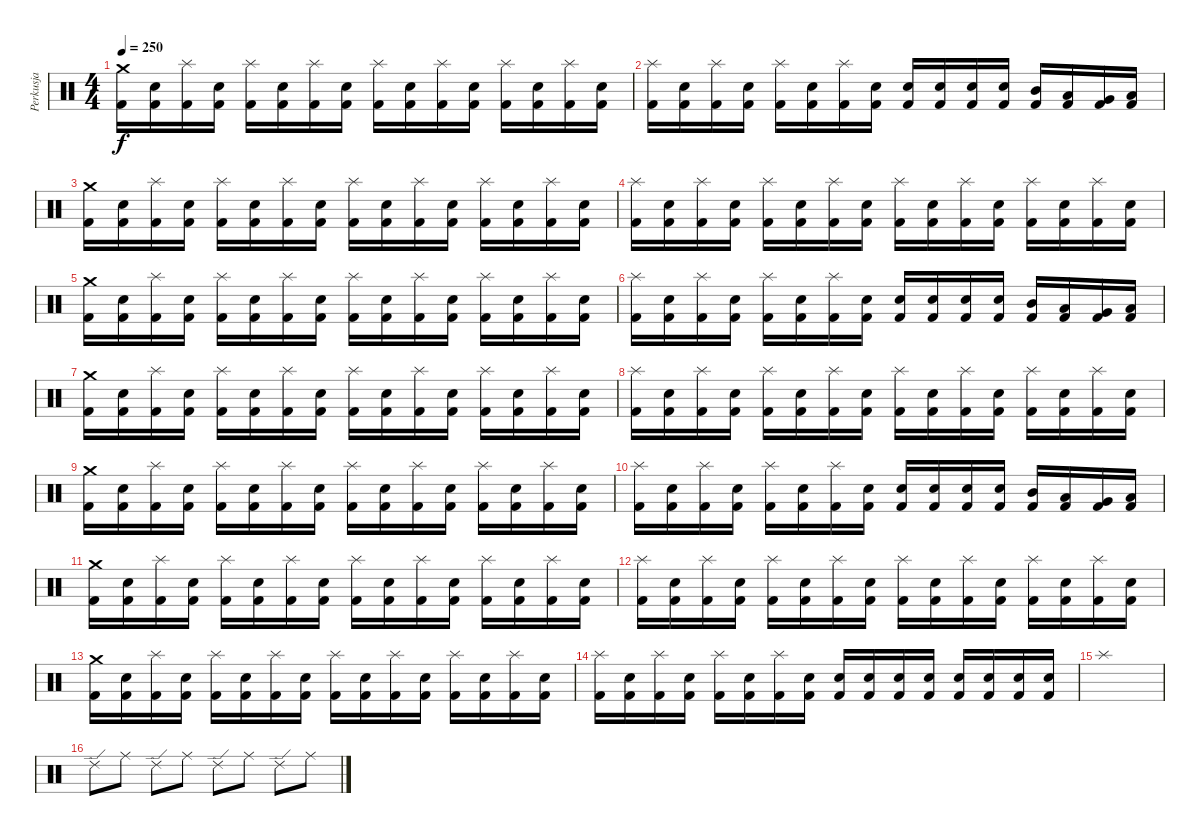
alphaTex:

\track ("Perkusja" "Perkusja") {instrument percussion}
\staff {score}
\articulation defaults
\ts (4 4)
\tempo 250
\clef neutral
\ks c
("Crash medium (hit)" "Kick (hit) 2").16{dy f} ("Snare (hit) 2" "Kick (hit) 2").16 ("Splash (hit)" "Kick (hit) 2").16 ("Snare (hit) 2" "Kick (hit) 2").16 ("Splash (hit)" "Kick (hit) 2").16 ("Snare (hit) 2" "Kick (hit) 2").16 ("Splash (hit)" "Kick (hit) 2").16 ("Snare (hit) 2" "Kick (hit) 2").16 ("Splash (hit)" "Kick (hit) 2").16 ("Snare (hit) 2" "Kick (hit) 2").16 ("Splash (hit)" "Kick (hit) 2").16 ("Snare (hit) 2" "Kick (hit) 2").16 ("Splash (hit)" "Kick (hit) 2").16 ("Snare (hit) 2" "Kick (hit) 2").16 ("Splash (hit)" "Kick (hit) 2").16 ("Snare (hit) 2" "Kick (hit) 2").16 |
("Splash (hit)" "Kick (hit) 2").16 ("Snare (hit) 2" "Kick (hit) 2").16 ("Splash (hit)" "Kick (hit) 2").16 ("Snare (hit) 2" "Kick (hit) 2").16 ("Splash (hit)" "Kick (hit) 2").16 ("Snare (hit) 2" "Kick (hit) 2").16 ("Splash (hit)" "Kick (hit) 2").16 ("Snare (hit) 2" "Kick (hit) 2").16 ("Electric Snare (hit)" "Kick (hit) 2").16 ("Electric Snare (hit)" "Kick (hit) 2").16 ("Electric Snare (hit)" "Kick (hit) 2").16 ("Electric Snare (hit)" "Kick (hit) 2").16 ("Mid Tom (hit)" "Kick (hit) 2").16 ("Low Tom (hit)" "Kick (hit) 2").16 ("Very Low Tom (hit)" "Kick (hit) 2").16 ("Low Floor Tom (hit)" "Kick (hit) 2").16 |
("Crash medium (hit)" "Kick (hit) 2").16 ("Snare (hit) 2" "Kick (hit) 2").16 ("Splash (hit)" "Kick (hit) 2").16 ("Snare (hit) 2" "Kick (hit) 2").16 ("Splash (hit)" "Kick (hit) 2").16 ("Snare (hit) 2" "Kick (hit) 2").16 ("Splash (hit)" "Kick (hit) 2").16 ("Snare (hit) 2" "Kick (hit) 2").16 ("Splash (hit)" "Kick (hit) 2").16 ("Snare (hit) 2" "Kick (hit) 2").16 ("Splash (hit)" "Kick (hit) 2").16 ("Snare (hit) 2" "Kick (hit) 2").16 ("Splash (hit)" "Kick (hit) 2").16 ("Snare (hit) 2" "Kick (hit) 2").16 ("Splash (hit)" "Kick (hit) 2").16 ("Snare (hit) 2" "Kick (hit) 2").16 |
("Splash (hit)" "Kick (hit) 2").16 ("Snare (hit) 2" "Kick (hit) 2").16 ("Splash (hit)" "Kick (hit) 2").16 ("Snare (hit) 2" "Kick (hit) 2").16 ("Splash (hit)" "Kick (hit) 2").16 ("Snare (hit) 2" "Kick (hit) 2").16 ("Splash (hit)" "Kick (hit) 2").16 ("Snare (hit) 2" "Kick (hit) 2").16 ("Splash (hit)" "Kick (hit) 2").16 ("Snare (hit) 2" "Kick (hit) 2").16 ("Splash (hit)" "Kick (hit) 2").16 ("Snare (hit) 2" "Kick (hit) 2").16 ("Splash (hit)" "Kick (hit) 2").16 ("Snare (hit) 2" "Kick (hit) 2").16 ("Splash (hit)" "Kick (hit) 2").16 ("Snare (hit) 2" "Kick (hit) 2").16 |
("Crash medium (hit)" "Kick (hit) 2").16 ("Snare (hit) 2" "Kick (hit) 2").16 ("Splash (hit)" "Kick (hit) 2").16 ("Snare (hit) 2" "Kick (hit) 2").16 ("Splash (hit)" "Kick (hit) 2").16 ("Snare (hit) 2" "Kick (hit) 2").16 ("Splash (hit)" "Kick (hit) 2").16 ("Snare (hit) 2" "Kick (hit) 2").16 ("Splash (hit)" "Kick (hit) 2").16 ("Snare (hit) 2" "Kick (hit) 2").16 ("Splash (hit)" "Kick (hit) 2").16 ("Snare (hit) 2" "Kick (hit) 2").16 ("Splash (hit)" "Kick (hit) 2").16 ("Snare (hit) 2" "Kick (hit) 2").16 ("Splash (hit)" "Kick (hit) 2").16 ("Snare (hit) 2" "Kick (hit) 2").16 |
("Splash (hit)" "Kick (hit) 2").16 ("Snare (hit) 2" "Kick (hit) 2").16 ("Splash (hit)" "Kick (hit) 2").16 ("Snare (hit) 2" "Kick (hit) 2").16 ("Splash (hit)" "Kick (hit) 2").16 ("Snare (hit) 2" "Kick (hit) 2").16 ("Splash (hit)" "Kick (hit) 2").16 ("Snare (hit) 2" "Kick (hit) 2").16 ("Electric Snare (hit)" "Kick (hit) 2").16 ("Electric Snare (hit)" "Kick (hit) 2").16 ("Electric Snare (hit)" "Kick (hit) 2").16 ("Electric Snare (hit)" "Kick (hit) 2").16 ("Mid Tom (hit)" "Kick (hit) 2").16 ("Low Tom (hit)" "Kick (hit) 2").16 ("Very Low Tom (hit)" "Kick (hit) 2").16 ("Low Floor Tom (hit)" "Kick (hit) 2").16 |
("Crash medium (hit)" "Kick (hit) 2").16 ("Snare (hit) 2" "Kick (hit) 2").16 ("Splash (hit)" "Kick (hit) 2").16 ("Snare (hit) 2" "Kick (hit) 2").16 ("Splash (hit)" "Kick (hit) 2").16 ("Snare (hit) 2" "Kick (hit) 2").16 ("Splash (hit)" "Kick (hit) 2").16 ("Snare (hit) 2" "Kick (hit) 2").16 ("Splash (hit)" "Kick (hit) 2").16 ("Snare (hit) 2" "Kick (hit) 2").16 ("Splash (hit)" "Kick (hit) 2").16 ("Snare (hit) 2" "Kick (hit) 2").16 ("Splash (hit)" "Kick (hit) 2").16 ("Snare (hit) 2" "Kick (hit) 2").16 ("Splash (hit)" "Kick (hit) 2").16 ("Snare (hit) 2" "Kick (hit) 2").16 |
("Splash (hit)" "Kick (hit) 2").16 ("Snare (hit) 2" "Kick (hit) 2").16 ("Splash (hit)" "Kick (hit) 2").16 ("Snare (hit) 2" "Kick (hit) 2").16 ("Splash (hit)" "Kick (hit) 2").16 ("Snare (hit) 2" "Kick (hit) 2").16 ("Splash (hit)" "Kick (hit) 2").16 ("Snare (hit) 2" "Kick (hit) 2").16 ("Splash (hit)" "Kick (hit) 2").16 ("Snare (hit) 2" "Kick (hit) 2").16 ("Splash (hit)" "Kick (hit) 2").16 ("Snare (hit) 2" "Kick (hit) 2").16 ("Splash (hit)" "Kick (hit) 2").16 ("Snare (hit) 2" "Kick (hit) 2").16 ("Splash (hit)" "Kick (hit) 2").16 ("Snare (hit) 2" "Kick (hit) 2").16 |
("Crash medium (hit)" "Kick (hit) 2").16 ("Snare (hit) 2" "Kick (hit) 2").16 ("Splash (hit)" "Kick (hit) 2").16 ("Snare (hit) 2" "Kick (hit) 2").16 ("Splash (hit)" "Kick (hit) 2").16 ("Snare (hit) 2" "Kick (hit) 2").16 ("Splash (hit)" "Kick (hit) 2").16 ("Snare (hit) 2" "Kick (hit) 2").16 ("Splash (hit)" "Kick (hit) 2").16 ("Snare (hit) 2" "Kick (hit) 2").16 ("Splash (hit)" "Kick (hit) 2").16 ("Snare (hit) 2" "Kick (hit) 2").16 ("Splash (hit)" "Kick (hit) 2").16 ("Snare (hit) 2" "Kick (hit) 2").16 ("Splash (hit)" "Kick (hit) 2").16 ("Snare (hit) 2" "Kick (hit) 2").16 |
("Splash (hit)" "Kick (hit) 2").16 ("Snare (hit) 2" "Kick (hit) 2").16 ("Splash (hit)" "Kick (hit) 2").16 ("Snare (hit) 2" "Kick (hit) 2").16 ("Splash (hit)" "Kick (hit) 2").16 ("Snare (hit) 2" "Kick (hit) 2").16 ("Splash (hit)" "Kick (hit) 2").16 ("Snare (hit) 2" "Kick (hit) 2").16 ("Electric Snare (hit)" "Kick (hit) 2").16 ("Electric Snare (hit)" "Kick (hit) 2").16 ("Electric Snare (hit)" "Kick (hit) 2").16 ("Electric Snare (hit)" "Kick (hit) 2").16 ("Mid Tom (hit)" "Kick (hit) 2").16 ("Low Tom (hit)" "Kick (hit) 2").16 ("Very Low Tom (hit)" "Kick (hit) 2").16 ("Low Floor Tom (hit)" "Kick (hit) 2").16 |
("Crash medium (hit)" "Kick (hit) 2").16 ("Snare (hit) 2" "Kick (hit) 2").16 ("Splash (hit)" "Kick (hit) 2").16 ("Snare (hit) 2" "Kick (hit) 2").16 ("Splash (hit)" "Kick (hit) 2").16 ("Snare (hit) 2" "Kick (hit) 2").16 ("Splash (hit)" "Kick (hit) 2").16 ("Snare (hit) 2" "Kick (hit) 2").16 ("Splash (hit)" "Kick (hit) 2").16 ("Snare (hit) 2" "Kick (hit) 2").16 ("Splash (hit)" "Kick (hit) 2").16 ("Snare (hit) 2" "Kick (hit) 2").16 ("Splash (hit)" "Kick (hit) 2").16 ("Snare (hit) 2" "Kick (hit) 2").16 ("Splash (hit)" "Kick (hit) 2").16 ("Snare (hit) 2" "Kick (hit) 2").16 |
("Splash (hit)" "Kick (hit) 2").16 ("Snare (hit) 2" "Kick (hit) 2").16 ("Splash (hit)" "Kick (hit) 2").16 ("Snare (hit) 2" "Kick (hit) 2").16 ("Splash (hit)" "Kick (hit) 2").16 ("Snare (hit) 2" "Kick (hit) 2").16 ("Splash (hit)" "Kick (hit) 2").16 ("Snare (hit) 2" "Kick (hit) 2").16 ("Splash (hit)" "Kick (hit) 2").16 ("Snare (hit) 2" "Kick (hit) 2").16 ("Splash (hit)" "Kick (hit) 2").16 ("Snare (hit) 2" "Kick (hit) 2").16 ("Splash (hit)" "Kick (hit) 2").16 ("Snare (hit) 2" "Kick (hit) 2").16 ("Splash (hit)" "Kick (hit) 2").16 ("Snare (hit) 2" "Kick (hit) 2").16 |
("Crash medium (hit)" "Kick (hit) 2").16 ("Snare (hit) 2" "Kick (hit) 2").16 ("Splash (hit)" "Kick (hit) 2").16 ("Snare (hit) 2" "Kick (hit) 2").16 ("Splash (hit)" "Kick (hit) 2").16 ("Snare (hit) 2" "Kick (hit) 2").16 ("Splash (hit)" "Kick (hit) 2").16 ("Snare (hit) 2" "Kick (hit) 2").16 ("Splash (hit)" "Kick (hit) 2").16 ("Snare (hit) 2" "Kick (hit) 2").16 ("Splash (hit)" "Kick (hit) 2").16 ("Snare (hit) 2" "Kick (hit) 2").16 ("Splash (hit)" "Kick (hit) 2").16 ("Snare (hit) 2" "Kick (hit) 2").16 ("Splash (hit)" "Kick (hit) 2").16 ("Snare (hit) 2" "Kick (hit) 2").16 |
("Splash (hit)" "Kick (hit) 2").16 ("Snare (hit) 2" "Kick (hit) 2").16 ("Splash (hit)" "Kick (hit) 2").16 ("Snare (hit) 2" "Kick (hit) 2").16 ("Splash (hit)" "Kick (hit) 2").16 ("Snare (hit) 2" "Kick (hit) 2").16 ("Splash (hit)" "Kick (hit) 2").16 ("Snare (hit) 2" "Kick (hit) 2").16 ("Snare (hit) 2" "Kick (hit) 2").16 ("Snare (hit) 2" "Kick (hit) 2").16 ("Snare (hit) 2" "Kick (hit) 2").16 ("Snare (hit) 2" "Kick (hit) 2").16 ("Electric Snare (hit)" "Kick (hit) 2").16 ("Electric Snare (hit)" "Kick (hit) 2").16 ("Electric Snare (hit)" "Kick (hit) 2").16 ("Electric Snare (hit)" "Kick (hit) 2").16 |
"Splash (hit)".1 |
"Ride (edge) 2".8 "Ride (middle)".8 "Ride (edge) 2".8 "Ride (middle)".8 "Ride (edge) 2".8 "Ride (middle)".8 "Ride (edge) 2".8 "Ride (middle)".8
